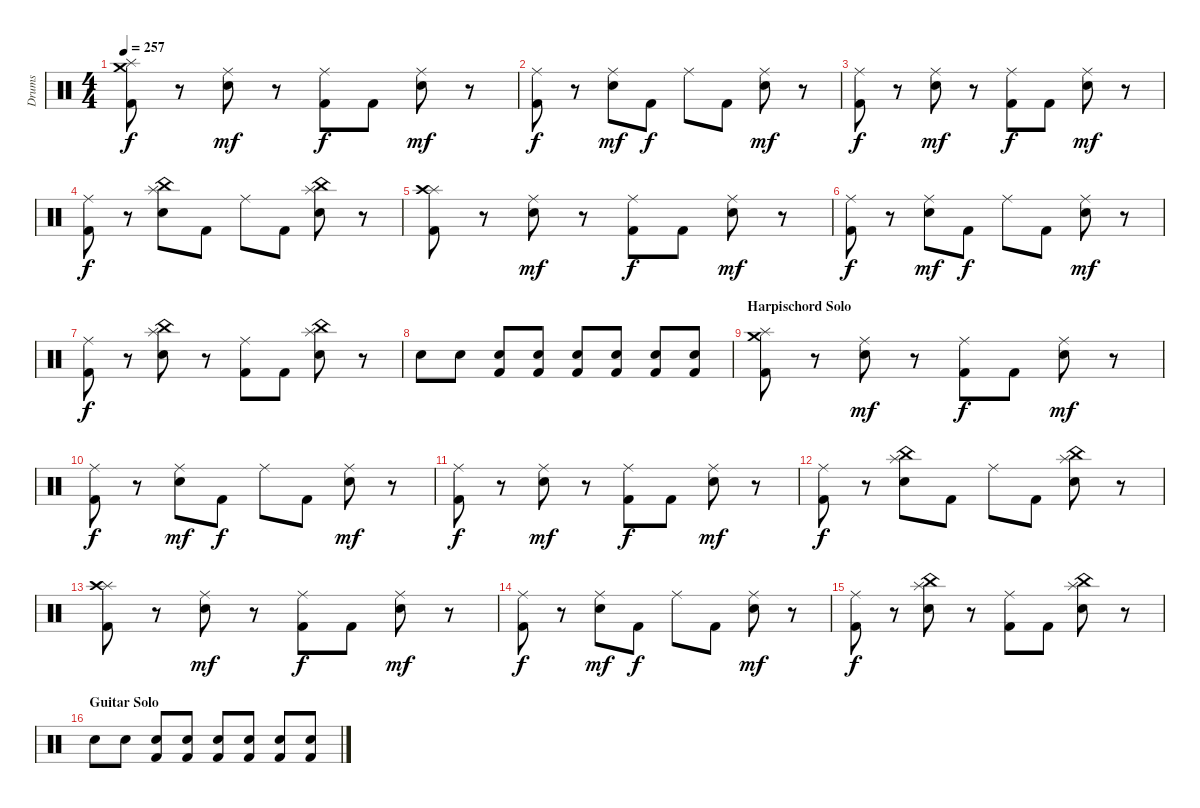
\track ("Drums" "Drums") {instrument percussion}
\staff {score}
\articulation defaults
\ts (4 4)
\tempo 257
\clef neutral
\ks c
("Splash (hit)" "Crash medium (hit)" "Kick (hit) 2").8{dy f} r.8 ("Snare (hit) 2" "Ride (middle)").8{dy mf} r.8 ("Kick (hit) 2" "Ride (middle)").8{dy f} "Kick (hit) 2".8 ("Snare (hit) 2" "Ride (middle)").8{dy mf} r.8 |
("Kick (hit) 2" "Ride (middle)").8{dy f} r.8 ("Snare (hit) 2" "Ride (middle)").8{dy mf} "Kick (hit) 2".8{dy f} "Ride (middle)".8 "Kick (hit) 2".8 ("Snare (hit) 2" "Ride (middle)").8{dy mf} r.8 |
("Ride (middle)" "Kick (hit) 2").8{dy f} r.8 ("Snare (hit) 2" "Ride (middle)").8{dy mf} r.8 ("Kick (hit) 2" "Ride (middle)").8{dy f} "Kick (hit) 2".8 ("Snare (hit) 2" "Ride (middle)").8{dy mf} r.8 |
("Kick (hit) 2" "Ride (middle)").8{dy f} r.8 ("Snare (hit) 2" "Splash (hit)" "China (hit)").8 "Kick (hit) 2".8 "Ride (middle)".8 "Kick (hit) 2".8 ("China (hit)" "Snare (hit) 2" "Splash (hit)").8 r.8 |
("Splash (hit)" "Crash high (hit)" "Kick (hit) 2").8 r.8 ("Snare (hit) 2" "Ride (middle)").8{dy mf} r.8 ("Kick (hit) 2" "Ride (middle)").8{dy f} "Kick (hit) 2".8 ("Snare (hit) 2" "Ride (middle)").8{dy mf} r.8 |
("Kick (hit) 2" "Ride (middle)").8{dy f} r.8 ("Snare (hit) 2" "Ride (middle)").8{dy mf} "Kick (hit) 2".8{dy f} "Ride (middle)".8 "Kick (hit) 2".8 ("Snare (hit) 2" "Ride (middle)").8{dy mf} r.8 |
("Kick (hit) 2" "Ride (middle)").8{dy f} r.8 ("Snare (hit) 2" "Splash (hit)" "China (hit)").8 r.8 ("Kick (hit) 2" "Ride (middle)").8 "Kick (hit) 2".8 ("Snare (hit) 2" "Splash (hit)" "China (hit)").8 r.8 |
"Snare (hit) 2".8 "Snare (hit) 2".8 ("Snare (hit) 2" "Kick (hit) 2").8 ("Snare (hit) 2" "Kick (hit) 2").8 ("Snare (hit) 2" "Kick (hit) 2").8 ("Snare (hit) 2" "Kick (hit) 2").8 ("Snare (hit) 2" "Kick (hit) 2").8 ("Snare (hit) 2" "Kick (hit) 2").8 |
\section ("" "Harpischord Solo")
("Splash (hit)" "Crash medium (hit)" "Kick (hit) 2").8 r.8 ("Snare (hit) 2" "Ride (middle)").8{dy mf} r.8 ("Kick (hit) 2" "Ride (middle)").8{dy f} "Kick (hit) 2".8 ("Snare (hit) 2" "Ride (middle)").8{dy mf} r.8 |
("Kick (hit) 2" "Ride (middle)").8{dy f} r.8 ("Snare (hit) 2" "Ride (middle)").8{dy mf} "Kick (hit) 2".8{dy f} "Ride (middle)".8 "Kick (hit) 2".8 ("Snare (hit) 2" "Ride (middle)").8{dy mf} r.8 |
("Ride (middle)" "Kick (hit) 2").8{dy f} r.8 ("Snare (hit) 2" "Ride (middle)").8{dy mf} r.8 ("Kick (hit) 2" "Ride (middle)").8{dy f} "Kick (hit) 2".8 ("Snare (hit) 2" "Ride (middle)").8{dy mf} r.8 |
("Kick (hit) 2" "Ride (middle)").8{dy f} r.8 ("Snare (hit) 2" "Splash (hit)" "China (hit)").8 "Kick (hit) 2".8 "Ride (middle)".8 "Kick (hit) 2".8 ("Snare (hit) 2" "Splash (hit)" "China (hit)").8 r.8 |
("Splash (hit)" "Crash high (hit)" "Kick (hit) 2").8 r.8 ("Snare (hit) 2" "Ride (middle)").8{dy mf} r.8 ("Kick (hit) 2" "Ride (middle)").8{dy f} "Kick (hit) 2".8 ("Snare (hit) 2" "Ride (middle)").8{dy mf} r.8 |
("Kick (hit) 2" "Ride (middle)").8{dy f} r.8 ("Snare (hit) 2" "Ride (middle)").8{dy mf} "Kick (hit) 2".8{dy f} "Ride (middle)".8 "Kick (hit) 2".8 ("Snare (hit) 2" "Ride (middle)").8{dy mf} r.8 |
("Kick (hit) 2" "Ride (middle)").8{dy f} r.8 ("Snare (hit) 2" "Splash (hit)" "China (hit)").8 r.8 ("Kick (hit) 2" "Ride (middle)").8 "Kick (hit) 2".8 ("Snare (hit) 2" "Splash (hit)" "China (hit)").8 r.8 |
\section ("" "Guitar Solo")
"Snare (hit) 2".8 "Snare (hit) 2".8 ("Snare (hit) 2" "Kick (hit) 2").8 ("Snare (hit) 2" "Kick (hit) 2").8 ("Snare (hit) 2" "Kick (hit) 2").8 ("Snare (hit) 2" "Kick (hit) 2").8 ("Snare (hit) 2" "Kick (hit) 2").8 ("Snare (hit) 2" "Kick (hit) 2").8
